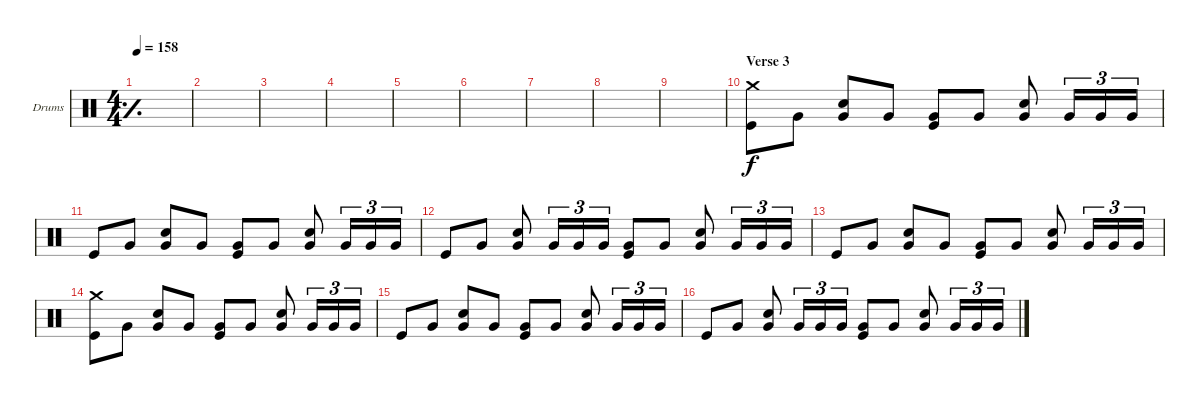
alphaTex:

\defaultSystemsLayout 4
\bracketExtendMode groupsimilarinstruments
\firstSystemTrackNameOrientation horizontal
\otherSystemsTrackNameOrientation horizontal
\track ("Drums" "Drums") {instrument percussion}
\staff {score}
\articulation defaults
\ts (4 4)
\tempo 158
\clef neutral
\simile simple
\ks c
|
|
|
|
|
|
|
|
|
\section ("" "Verse 3")
("Crash medium (hit)" "Kick (hit)").8 "Very Low Tom (hit)".8 ("Very Low Tom (hit)" "Snare (hit) 2").8 "Very Low Tom (hit)".8 ("Very Low Tom (hit)" "Kick (hit)").8 "Very Low Tom (hit)".8 ("Very Low Tom (hit)" "Snare (hit) 2").8 "Very Low Tom (hit)".16{tu (3 2)} "Very Low Tom (hit)".16{tu (3 2)} "Very Low Tom (hit)".16{tu (3 2)} |
"Kick (hit)".8 "Very Low Tom (hit)".8 ("Very Low Tom (hit)" "Snare (hit) 2").8 "Very Low Tom (hit)".8 ("Very Low Tom (hit)" "Kick (hit)").8 "Very Low Tom (hit)".8 ("Very Low Tom (hit)" "Snare (hit) 2").8 "Very Low Tom (hit)".16{tu (3 2)} "Very Low Tom (hit)".16{tu (3 2)} "Very Low Tom (hit)".16{tu (3 2)} |
"Kick (hit)".8 "Very Low Tom (hit)".8 ("Very Low Tom (hit)" "Snare (hit) 2").8 "Very Low Tom (hit)".16{tu (3 2)} "Very Low Tom (hit)".16{tu (3 2)} "Very Low Tom (hit)".16{tu (3 2)} ("Very Low Tom (hit)" "Kick (hit)").8 "Very Low Tom (hit)".8 ("Very Low Tom (hit)" "Snare (hit) 2").8 "Very Low Tom (hit)".16{tu (3 2)} "Very Low Tom (hit)".16{tu (3 2)} "Very Low Tom (hit)".16{tu (3 2)} |
"Kick (hit)".8 "Very Low Tom (hit)".8 ("Very Low Tom (hit)" "Snare (hit) 2").8 "Very Low Tom (hit)".8 ("Very Low Tom (hit)" "Kick (hit)").8 "Very Low Tom (hit)".8 ("Very Low Tom (hit)" "Snare (hit) 2").8 "Very Low Tom (hit)".16{tu (3 2)} "Very Low Tom (hit)".16{tu (3 2)} "Very Low Tom (hit)".16{tu (3 2)} |
("Crash medium (hit)" "Kick (hit)").8 "Very Low Tom (hit)".8 ("Very Low Tom (hit)" "Snare (hit) 2").8 "Very Low Tom (hit)".8 ("Very Low Tom (hit)" "Kick (hit)").8 "Very Low Tom (hit)".8 ("Very Low Tom (hit)" "Snare (hit) 2").8 "Very Low Tom (hit)".16{tu (3 2)} "Very Low Tom (hit)".16{tu (3 2)} "Very Low Tom (hit)".16{tu (3 2)} |
"Kick (hit)".8 "Very Low Tom (hit)".8 ("Very Low Tom (hit)" "Snare (hit) 2").8 "Very Low Tom (hit)".8 ("Very Low Tom (hit)" "Kick (hit)").8 "Very Low Tom (hit)".8 ("Very Low Tom (hit)" "Snare (hit) 2").8 "Very Low Tom (hit)".16{tu (3 2)} "Very Low Tom (hit)".16{tu (3 2)} "Very Low Tom (hit)".16{tu (3 2)} |
"Kick (hit)".8 "Very Low Tom (hit)".8 ("Very Low Tom (hit)" "Snare (hit) 2").8 "Very Low Tom (hit)".16{tu (3 2)} "Very Low Tom (hit)".16{tu (3 2)} "Very Low Tom (hit)".16{tu (3 2)} ("Very Low Tom (hit)" "Kick (hit)").8 "Very Low Tom (hit)".8 ("Very Low Tom (hit)" "Snare (hit) 2").8 "Very Low Tom (hit)".16{tu (3 2)} "Very Low Tom (hit)".16{tu (3 2)} "Very Low Tom (hit)".16{tu (3 2)}
